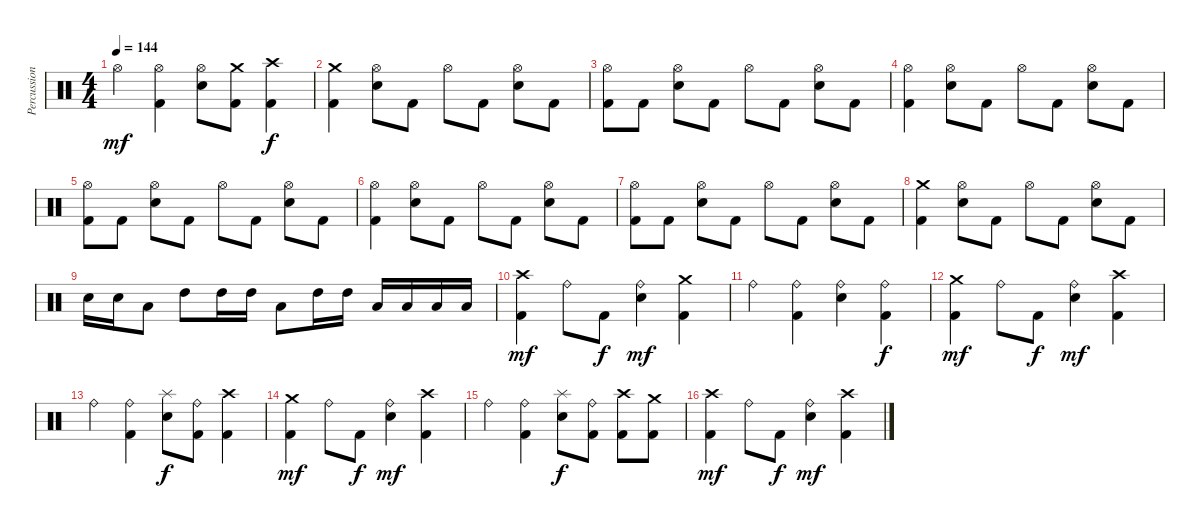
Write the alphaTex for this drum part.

\track ("Percussions" "Percussion") {instrument percussion}
\staff {score}
\articulation defaults
\ts (4 4)
\tempo 144
\clef neutral
\ks c "Hi-Hat (open)".4{dy mf}
("Hi-Hat (open)" "Kick (hit) 2").4 ("Hi-Hat (open)" "Electric Snare (hit)").8 ("Crash medium (hit)" "Kick (hit) 2").8 ("Crash high (hit)" "Kick (hit) 2").4{dy f} |
("Crash medium (hit)" "Kick (hit) 2").4 ("Hi-Hat (open)" "Electric Snare (hit)").8 "Kick (hit) 2".8 "Hi-Hat (open)".8 "Kick (hit) 2".8 ("Hi-Hat (open)" "Electric Snare (hit)").8 "Kick (hit) 2".8 |
("Hi-Hat (open)" "Kick (hit) 2").8 "Kick (hit) 2".8 ("Hi-Hat (open)" "Electric Snare (hit)").8 "Kick (hit) 2".8 "Hi-Hat (open)".8 "Kick (hit) 2".8 ("Hi-Hat (open)" "Electric Snare (hit)").8 "Kick (hit) 2".8 |
("Hi-Hat (open)" "Kick (hit) 2").4 ("Hi-Hat (open)" "Electric Snare (hit)").8 "Kick (hit) 2".8 "Hi-Hat (open)".8 "Kick (hit) 2".8 ("Hi-Hat (open)" "Electric Snare (hit)").8 "Kick (hit) 2".8 |
("Hi-Hat (open)" "Kick (hit) 2").8 "Kick (hit) 2".8 ("Hi-Hat (open)" "Electric Snare (hit)").8 "Kick (hit) 2".8 "Hi-Hat (open)".8 "Kick (hit) 2".8 ("Hi-Hat (open)" "Electric Snare (hit)").8 "Kick (hit) 2".8 |
("Hi-Hat (open)" "Kick (hit) 2").4 ("Hi-Hat (open)" "Electric Snare (hit)").8 "Kick (hit) 2".8 "Hi-Hat (open)".8 "Kick (hit) 2".8 ("Hi-Hat (open)" "Electric Snare (hit)").8 "Kick (hit) 2".8 |
("Hi-Hat (open)" "Kick (hit) 2").8 "Kick (hit) 2".8 ("Hi-Hat (open)" "Electric Snare (hit)").8 "Kick (hit) 2".8 "Hi-Hat (open)".8 "Kick (hit) 2".8 ("Hi-Hat (open)" "Electric Snare (hit)").8 "Kick (hit) 2".8 |
("Crash medium (hit)" "Kick (hit) 2").4 ("Hi-Hat (open)" "Electric Snare (hit)").8 "Kick (hit) 2".8 "Hi-Hat (open)".8 "Kick (hit) 2".8 ("Hi-Hat (open)" "Electric Snare (hit)").8 "Kick (hit) 2".8 |
"Electric Snare (hit)".16 "Electric Snare (hit)".16 "Low Tom (hit)".8 "High Tom (hit)".8 "High Tom (hit)".16 "High Tom (hit)".16 "Low Tom (hit)".8 "High Tom (hit)".16 "High Tom (hit)".16 "Low Tom (hit)".16 "Low Tom (hit)".16 "Low Floor Tom (hit)".16 "Low Floor Tom (hit)".16 |
("Crash high (hit)" "Kick (hit) 2").4{dy mf} "Ride (bell)".8 "Kick (hit) 2".8{dy f} ("Ride (bell)" "Electric Snare (hit)").4{dy mf} ("Crash medium (hit)" "Kick (hit) 2").4 |
"Ride (bell)".4 ("Ride (bell)" "Kick (hit) 2").4 ("Ride (bell)" "Electric Snare (hit)").4 ("Ride (bell)" "Kick (hit) 2").4{dy f} |
("Crash medium (hit)" "Kick (hit) 2").4{dy mf} "Ride (bell)".8 "Kick (hit) 2".8{dy f} ("Ride (bell)" "Electric Snare (hit)").4{dy mf} ("Crash high (hit)" "Kick (hit) 2").4 |
"Ride (bell)".4 ("Ride (bell)" "Kick (hit) 2").4 ("Splash (hit)" "Electric Snare (hit)").8{dy f} ("Ride (bell)" "Kick (hit) 2").8 ("Crash high (hit)" "Kick (hit) 2").4 |
("Crash medium (hit)" "Kick (hit) 2").4{dy mf} "Ride (bell)".8 "Kick (hit) 2".8{dy f} ("Ride (bell)" "Electric Snare (hit)").4{dy mf} ("Crash high (hit)" "Kick (hit) 2").4 |
"Ride (bell)".4 ("Ride (bell)" "Kick (hit) 2").4 ("Splash (hit)" "Electric Snare (hit)").8{dy f} ("Ride (bell)" "Kick (hit) 2").8 ("Crash high (hit)" "Kick (hit) 2").8 ("Crash medium (hit)" "Kick (hit) 2").8 |
("Crash high (hit)" "Kick (hit) 2").4{dy mf} "Ride (bell)".8 "Kick (hit) 2".8{dy f} ("Ride (bell)" "Electric Snare (hit)").4{dy mf} ("Crash high (hit)" "Kick (hit) 2").4
